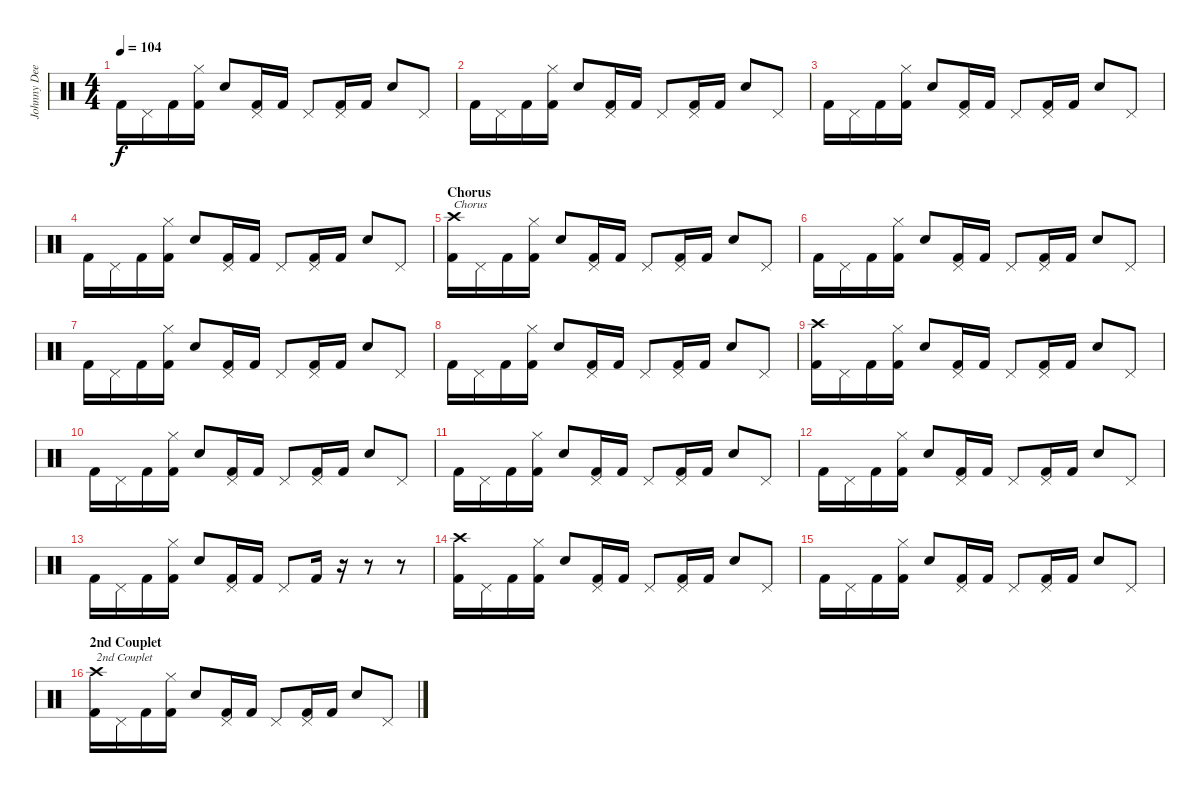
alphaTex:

\track ("Johnny Dee" "Johnny Dee") {instrument percussion}
\staff {score}
\articulation defaults
\ts (4 4)
\tempo 104
\clef neutral
\ks c "Kick (hit) 2".16{dy f} "Pedal Hi-Hat (hit)".16 "Kick (hit) 2".16
("Hi-Hat (closed)" "Kick (hit) 2").16 "Snare (hit) 2".8 ("Pedal Hi-Hat (hit)" "Kick (hit) 2").16 "Kick (hit) 2".16 "Pedal Hi-Hat (hit)".8 ("Pedal Hi-Hat (hit)" "Kick (hit) 2").16 "Kick (hit) 2".16 "Snare (hit) 2".8 "Pedal Hi-Hat (hit)".8 |
"Kick (hit) 2".16 "Pedal Hi-Hat (hit)".16 "Kick (hit) 2".16 ("Hi-Hat (closed)" "Kick (hit) 2").16 "Snare (hit) 2".8 ("Pedal Hi-Hat (hit)" "Kick (hit) 2").16 "Kick (hit) 2".16 "Pedal Hi-Hat (hit)".8 ("Pedal Hi-Hat (hit)" "Kick (hit) 2").16 "Kick (hit) 2".16 "Snare (hit) 2".8 "Pedal Hi-Hat (hit)".8 |
"Kick (hit) 2".16 "Pedal Hi-Hat (hit)".16 "Kick (hit) 2".16 ("Hi-Hat (closed)" "Kick (hit) 2").16 "Snare (hit) 2".8 ("Pedal Hi-Hat (hit)" "Kick (hit) 2").16 "Kick (hit) 2".16 "Pedal Hi-Hat (hit)".8 ("Pedal Hi-Hat (hit)" "Kick (hit) 2").16 "Kick (hit) 2".16 "Snare (hit) 2".8 "Pedal Hi-Hat (hit)".8 |
"Kick (hit) 2".16 "Pedal Hi-Hat (hit)".16 "Kick (hit) 2".16 ("Hi-Hat (closed)" "Kick (hit) 2").16 "Snare (hit) 2".8 ("Pedal Hi-Hat (hit)" "Kick (hit) 2").16 "Kick (hit) 2".16 "Pedal Hi-Hat (hit)".8 ("Pedal Hi-Hat (hit)" "Kick (hit) 2").16 "Kick (hit) 2".16 "Snare (hit) 2".8 "Pedal Hi-Hat (hit)".8 |
\section ("" "Chorus")
("Crash high (hit)" "Kick (hit) 2").16{txt "Chorus"} "Pedal Hi-Hat (hit)".16 "Kick (hit) 2".16 ("Hi-Hat (closed)" "Kick (hit) 2").16 "Snare (hit) 2".8 ("Pedal Hi-Hat (hit)" "Kick (hit) 2").16 "Kick (hit) 2".16 "Pedal Hi-Hat (hit)".8 ("Pedal Hi-Hat (hit)" "Kick (hit) 2").16 "Kick (hit) 2".16 "Snare (hit) 2".8 "Pedal Hi-Hat (hit)".8 |
\section ("" "")
"Kick (hit) 2".16 "Pedal Hi-Hat (hit)".16 "Kick (hit) 2".16 ("Hi-Hat (closed)" "Kick (hit) 2").16 "Snare (hit) 2".8 ("Pedal Hi-Hat (hit)" "Kick (hit) 2").16 "Kick (hit) 2".16 "Pedal Hi-Hat (hit)".8 ("Pedal Hi-Hat (hit)" "Kick (hit) 2").16 "Kick (hit) 2".16 "Snare (hit) 2".8 "Pedal Hi-Hat (hit)".8 |
"Kick (hit) 2".16 "Pedal Hi-Hat (hit)".16 "Kick (hit) 2".16 ("Hi-Hat (closed)" "Kick (hit) 2").16 "Snare (hit) 2".8 ("Pedal Hi-Hat (hit)" "Kick (hit) 2").16 "Kick (hit) 2".16 "Pedal Hi-Hat (hit)".8 ("Pedal Hi-Hat (hit)" "Kick (hit) 2").16 "Kick (hit) 2".16 "Snare (hit) 2".8 "Pedal Hi-Hat (hit)".8 |
"Kick (hit) 2".16 "Pedal Hi-Hat (hit)".16 "Kick (hit) 2".16 ("Hi-Hat (closed)" "Kick (hit) 2").16 "Snare (hit) 2".8 ("Pedal Hi-Hat (hit)" "Kick (hit) 2").16 "Kick (hit) 2".16 "Pedal Hi-Hat (hit)".8 ("Pedal Hi-Hat (hit)" "Kick (hit) 2").16 "Kick (hit) 2".16 "Snare (hit) 2".8 "Pedal Hi-Hat (hit)".8 |
("Crash high (hit)" "Kick (hit) 2").16 "Pedal Hi-Hat (hit)".16 "Kick (hit) 2".16 ("Hi-Hat (closed)" "Kick (hit) 2").16 "Snare (hit) 2".8 ("Pedal Hi-Hat (hit)" "Kick (hit) 2").16 "Kick (hit) 2".16 "Pedal Hi-Hat (hit)".8 ("Pedal Hi-Hat (hit)" "Kick (hit) 2").16 "Kick (hit) 2".16 "Snare (hit) 2".8 "Pedal Hi-Hat (hit)".8 |
"Kick (hit) 2".16 "Pedal Hi-Hat (hit)".16 "Kick (hit) 2".16 ("Hi-Hat (closed)" "Kick (hit) 2").16 "Snare (hit) 2".8 ("Pedal Hi-Hat (hit)" "Kick (hit) 2").16 "Kick (hit) 2".16 "Pedal Hi-Hat (hit)".8 ("Pedal Hi-Hat (hit)" "Kick (hit) 2").16 "Kick (hit) 2".16 "Snare (hit) 2".8 "Pedal Hi-Hat (hit)".8 |
"Kick (hit) 2".16 "Pedal Hi-Hat (hit)".16 "Kick (hit) 2".16 ("Hi-Hat (closed)" "Kick (hit) 2").16 "Snare (hit) 2".8 ("Pedal Hi-Hat (hit)" "Kick (hit) 2").16 "Kick (hit) 2".16 "Pedal Hi-Hat (hit)".8 ("Pedal Hi-Hat (hit)" "Kick (hit) 2").16 "Kick (hit) 2".16 "Snare (hit) 2".8 "Pedal Hi-Hat (hit)".8 |
"Kick (hit) 2".16 "Pedal Hi-Hat (hit)".16 "Kick (hit) 2".16 ("Hi-Hat (closed)" "Kick (hit) 2").16 "Snare (hit) 2".8 ("Pedal Hi-Hat (hit)" "Kick (hit) 2").16 "Kick (hit) 2".16 "Pedal Hi-Hat (hit)".8 ("Pedal Hi-Hat (hit)" "Kick (hit) 2").16 "Kick (hit) 2".16 "Snare (hit) 2".8 "Pedal Hi-Hat (hit)".8 |
"Kick (hit) 2".16 "Pedal Hi-Hat (hit)".16 "Kick (hit) 2".16 ("Hi-Hat (closed)" "Kick (hit) 2").16 "Snare (hit) 2".8 ("Pedal Hi-Hat (hit)" "Kick (hit) 2").16 "Kick (hit) 2".16 "Pedal Hi-Hat (hit)".8 "Kick (hit) 2".16 r.16 r.8 r.8 |
("Crash high (hit)" "Kick (hit) 2").16 "Pedal Hi-Hat (hit)".16 "Kick (hit) 2".16 ("Hi-Hat (closed)" "Kick (hit) 2").16 "Snare (hit) 2".8 ("Pedal Hi-Hat (hit)" "Kick (hit) 2").16 "Kick (hit) 2".16 "Pedal Hi-Hat (hit)".8 ("Pedal Hi-Hat (hit)" "Kick (hit) 2").16 "Kick (hit) 2".16 "Snare (hit) 2".8 "Pedal Hi-Hat (hit)".8 |
"Kick (hit) 2".16 "Pedal Hi-Hat (hit)".16 "Kick (hit) 2".16 ("Hi-Hat (closed)" "Kick (hit) 2").16 "Snare (hit) 2".8 ("Pedal Hi-Hat (hit)" "Kick (hit) 2").16 "Kick (hit) 2".16 "Pedal Hi-Hat (hit)".8 ("Pedal Hi-Hat (hit)" "Kick (hit) 2").16 "Kick (hit) 2".16 "Snare (hit) 2".8 "Pedal Hi-Hat (hit)".8 |
\section ("" "2nd Couplet")
("Crash high (hit)" "Kick (hit) 2").16{txt "2nd Couplet"} "Pedal Hi-Hat (hit)".16 "Kick (hit) 2".16 ("Hi-Hat (closed)" "Kick (hit) 2").16 "Snare (hit) 2".8 ("Pedal Hi-Hat (hit)" "Kick (hit) 2").16 "Kick (hit) 2".16 "Pedal Hi-Hat (hit)".8 ("Pedal Hi-Hat (hit)" "Kick (hit) 2").16 "Kick (hit) 2".16 "Snare (hit) 2".8 "Pedal Hi-Hat (hit)".8
